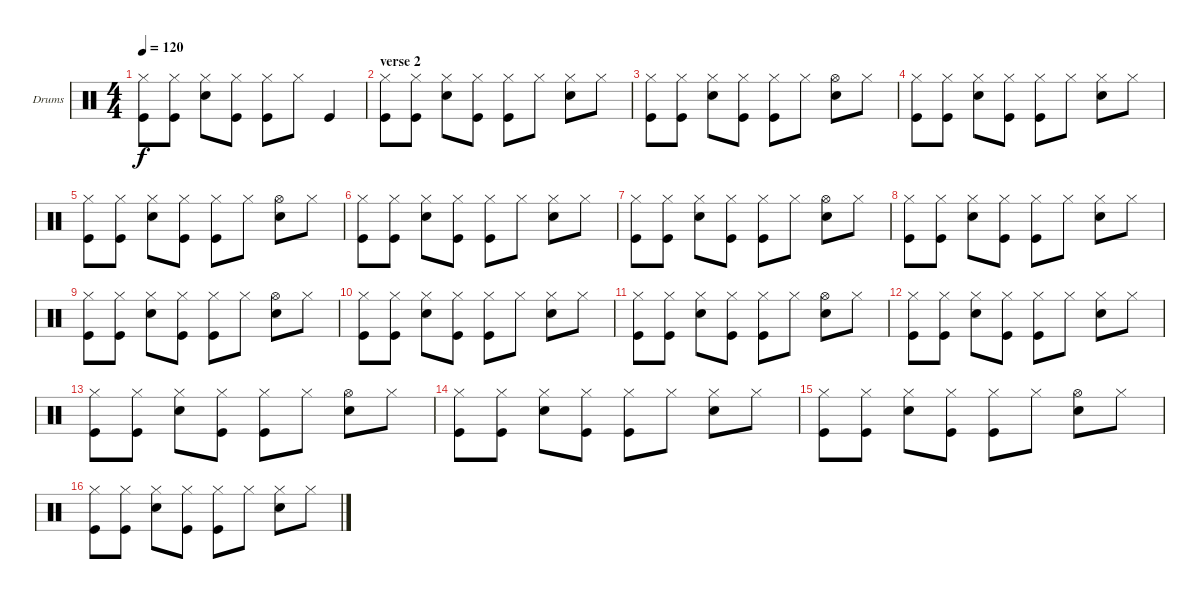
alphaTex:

\bracketExtendMode groupsimilarinstruments
\firstSystemTrackNameOrientation horizontal
\otherSystemsTrackNameOrientation horizontal
\track ("Drumkit" "Drums") {instrument percussion}
\staff {score}
\articulation defaults
\ts (4 4)
\tempo 120
\clef neutral
\ks c
("Kick (hit)" "Hi-Hat (closed)").8{dy f} ("Kick (hit)" "Hi-Hat (closed)").8 ("Snare (hit) 2" "Hi-Hat (closed)").8 ("Kick (hit)" "Hi-Hat (closed)").8 ("Kick (hit)" "Hi-Hat (closed)").8 "Hi-Hat (closed)".8 "Kick (hit)".4 |
\section ("" "verse 2")
("Kick (hit)" "Hi-Hat (closed)").8 ("Kick (hit)" "Hi-Hat (closed)").8 ("Snare (hit) 2" "Hi-Hat (closed)").8 ("Kick (hit)" "Hi-Hat (closed)").8 ("Kick (hit)" "Hi-Hat (closed)").8 "Hi-Hat (closed)".8 ("Snare (hit) 2" "Hi-Hat (closed)").8 "Hi-Hat (closed)".8 |
("Kick (hit)" "Hi-Hat (closed)").8 ("Kick (hit)" "Hi-Hat (closed)").8 ("Snare (hit) 2" "Hi-Hat (closed)").8 ("Kick (hit)" "Hi-Hat (closed)").8 ("Kick (hit)" "Hi-Hat (closed)").8 "Hi-Hat (closed)".8 ("Snare (hit) 2" "Hi-Hat (open)").8 "Hi-Hat (closed)".8 |
("Kick (hit)" "Hi-Hat (closed)").8 ("Kick (hit)" "Hi-Hat (closed)").8 ("Snare (hit) 2" "Hi-Hat (closed)").8 ("Kick (hit)" "Hi-Hat (closed)").8 ("Kick (hit)" "Hi-Hat (closed)").8 "Hi-Hat (closed)".8 ("Snare (hit) 2" "Hi-Hat (closed)").8 "Hi-Hat (closed)".8 |
("Kick (hit)" "Hi-Hat (closed)").8 ("Kick (hit)" "Hi-Hat (closed)").8 ("Snare (hit) 2" "Hi-Hat (closed)").8 ("Kick (hit)" "Hi-Hat (closed)").8 ("Kick (hit)" "Hi-Hat (closed)").8 "Hi-Hat (closed)".8 ("Snare (hit) 2" "Hi-Hat (open)").8 "Hi-Hat (closed)".8 |
("Kick (hit)" "Hi-Hat (closed)").8 ("Kick (hit)" "Hi-Hat (closed)").8 ("Snare (hit) 2" "Hi-Hat (closed)").8 ("Kick (hit)" "Hi-Hat (closed)").8 ("Kick (hit)" "Hi-Hat (closed)").8 "Hi-Hat (closed)".8 ("Snare (hit) 2" "Hi-Hat (closed)").8 "Hi-Hat (closed)".8 |
("Kick (hit)" "Hi-Hat (closed)").8 ("Kick (hit)" "Hi-Hat (closed)").8 ("Snare (hit) 2" "Hi-Hat (closed)").8 ("Kick (hit)" "Hi-Hat (closed)").8 ("Kick (hit)" "Hi-Hat (closed)").8 "Hi-Hat (closed)".8 ("Snare (hit) 2" "Hi-Hat (open)").8 "Hi-Hat (closed)".8 |
("Kick (hit)" "Hi-Hat (closed)").8 ("Kick (hit)" "Hi-Hat (closed)").8 ("Snare (hit) 2" "Hi-Hat (closed)").8 ("Kick (hit)" "Hi-Hat (closed)").8 ("Kick (hit)" "Hi-Hat (closed)").8 "Hi-Hat (closed)".8 ("Snare (hit) 2" "Hi-Hat (closed)").8 "Hi-Hat (closed)".8 |
("Kick (hit)" "Hi-Hat (closed)").8 ("Kick (hit)" "Hi-Hat (closed)").8 ("Snare (hit) 2" "Hi-Hat (closed)").8 ("Kick (hit)" "Hi-Hat (closed)").8 ("Kick (hit)" "Hi-Hat (closed)").8 "Hi-Hat (closed)".8 ("Snare (hit) 2" "Hi-Hat (open)").8 "Hi-Hat (closed)".8 |
("Kick (hit)" "Hi-Hat (closed)").8 ("Kick (hit)" "Hi-Hat (closed)").8 ("Snare (hit) 2" "Hi-Hat (closed)").8 ("Kick (hit)" "Hi-Hat (closed)").8 ("Kick (hit)" "Hi-Hat (closed)").8 "Hi-Hat (closed)".8 ("Snare (hit) 2" "Hi-Hat (closed)").8 "Hi-Hat (closed)".8 |
("Kick (hit)" "Hi-Hat (closed)").8 ("Kick (hit)" "Hi-Hat (closed)").8 ("Snare (hit) 2" "Hi-Hat (closed)").8 ("Kick (hit)" "Hi-Hat (closed)").8 ("Kick (hit)" "Hi-Hat (closed)").8 "Hi-Hat (closed)".8 ("Snare (hit) 2" "Hi-Hat (open)").8 "Hi-Hat (closed)".8 |
("Kick (hit)" "Hi-Hat (closed)").8 ("Kick (hit)" "Hi-Hat (closed)").8 ("Snare (hit) 2" "Hi-Hat (closed)").8 ("Kick (hit)" "Hi-Hat (closed)").8 ("Kick (hit)" "Hi-Hat (closed)").8 "Hi-Hat (closed)".8 ("Snare (hit) 2" "Hi-Hat (closed)").8 "Hi-Hat (closed)".8 |
("Kick (hit)" "Hi-Hat (closed)").8 ("Kick (hit)" "Hi-Hat (closed)").8 ("Snare (hit) 2" "Hi-Hat (closed)").8 ("Kick (hit)" "Hi-Hat (closed)").8 ("Kick (hit)" "Hi-Hat (closed)").8 "Hi-Hat (closed)".8 ("Snare (hit) 2" "Hi-Hat (open)").8 "Hi-Hat (closed)".8 |
("Kick (hit)" "Hi-Hat (closed)").8 ("Kick (hit)" "Hi-Hat (closed)").8 ("Snare (hit) 2" "Hi-Hat (closed)").8 ("Kick (hit)" "Hi-Hat (closed)").8 ("Kick (hit)" "Hi-Hat (closed)").8 "Hi-Hat (closed)".8 ("Snare (hit) 2" "Hi-Hat (closed)").8 "Hi-Hat (closed)".8 |
("Kick (hit)" "Hi-Hat (closed)").8 ("Kick (hit)" "Hi-Hat (closed)").8 ("Snare (hit) 2" "Hi-Hat (closed)").8 ("Kick (hit)" "Hi-Hat (closed)").8 ("Kick (hit)" "Hi-Hat (closed)").8 "Hi-Hat (closed)".8 ("Snare (hit) 2" "Hi-Hat (open)").8 "Hi-Hat (closed)".8 |
("Hi-Hat (closed)" "Kick (hit)").8 ("Hi-Hat (closed)" "Kick (hit)").8 ("Hi-Hat (closed)" "Snare (hit) 2").8 ("Hi-Hat (closed)" "Kick (hit)").8 ("Hi-Hat (closed)" "Kick (hit)").8 "Hi-Hat (closed)".8 ("Hi-Hat (closed)" "Snare (hit) 2").8 "Hi-Hat (closed)".8
